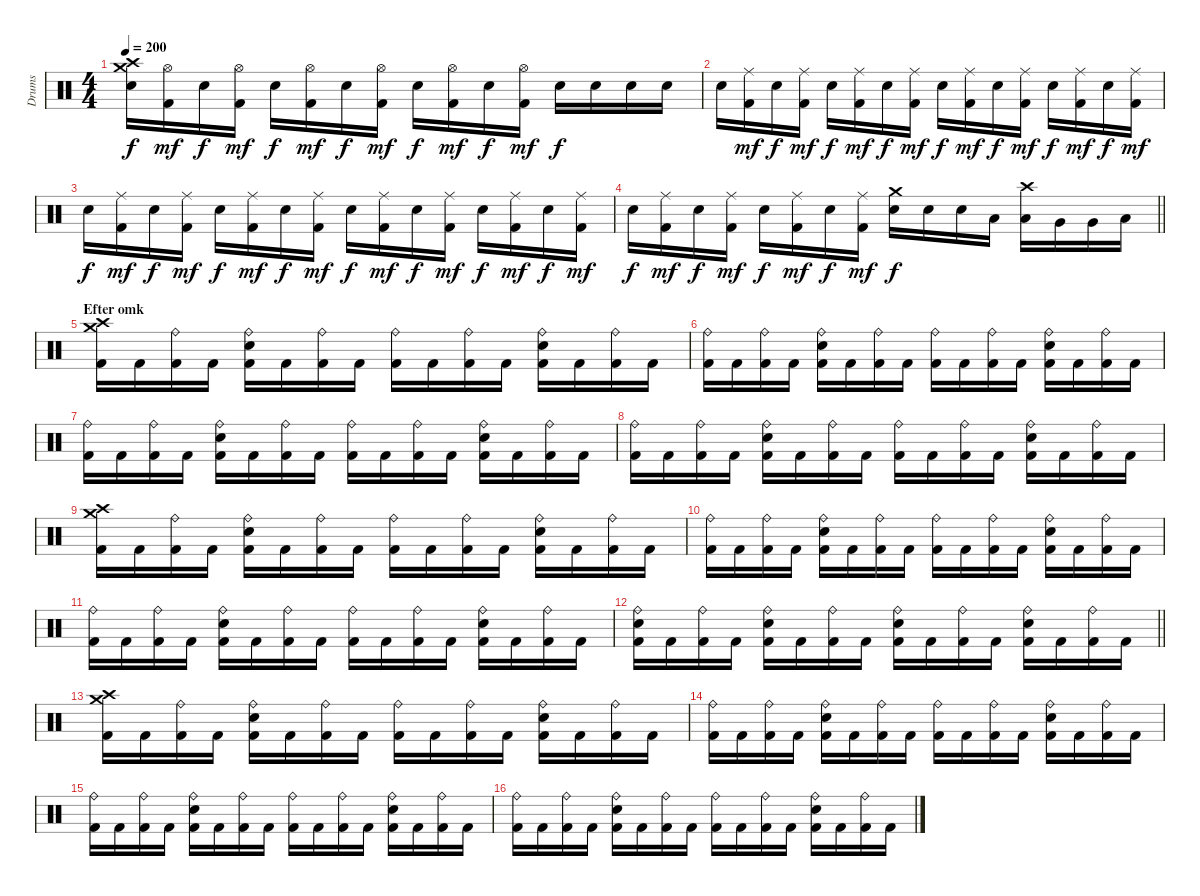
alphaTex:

\track ("Drums" "Drums") {instrument percussion}
\staff {score}
\articulation defaults
\ts (4 4)
\tempo 200
\clef neutral
\ks c
("Crash medium (hit)" "Crash high (hit)" "Snare (hit) 2").16{dy f} ("Hi-Hat (open)" "Kick (hit) 2").16{dy mf} "Snare (hit) 2".16{dy f} ("Hi-Hat (open)" "Kick (hit) 2").16{dy mf} "Snare (hit) 2".16{dy f} ("Hi-Hat (open)" "Kick (hit) 2").16{dy mf} "Snare (hit) 2".16{dy f} ("Hi-Hat (open)" "Kick (hit) 2").16{dy mf} "Snare (hit) 2".16{dy f} ("Hi-Hat (open)" "Kick (hit) 2").16{dy mf} "Snare (hit) 2".16{dy f} ("Hi-Hat (open)" "Kick (hit) 2").16{dy mf} "Snare (hit) 2".16{dy f} "Snare (hit) 2".16 "Snare (hit) 2".16 "Snare (hit) 2".16 |
"Snare (hit) 2".16 ("Ride (middle)" "Kick (hit) 2").16{dy mf} "Snare (hit) 2".16{dy f} ("Ride (middle)" "Kick (hit) 2").16{dy mf} "Snare (hit) 2".16{dy f} ("Ride (middle)" "Kick (hit) 2").16{dy mf} "Snare (hit) 2".16{dy f} ("Ride (middle)" "Kick (hit) 2").16{dy mf} "Snare (hit) 2".16{dy f} ("Ride (middle)" "Kick (hit) 2").16{dy mf} "Snare (hit) 2".16{dy f} ("Ride (middle)" "Kick (hit) 2").16{dy mf} "Snare (hit) 2".16{dy f} ("Ride (middle)" "Kick (hit) 2").16{dy mf} "Snare (hit) 2".16{dy f} ("Ride (middle)" "Kick (hit) 2").16{dy mf} |
"Snare (hit) 2".16{dy f} ("Ride (middle)" "Kick (hit) 2").16{dy mf} "Snare (hit) 2".16{dy f} ("Ride (middle)" "Kick (hit) 2").16{dy mf} "Snare (hit) 2".16{dy f} ("Ride (middle)" "Kick (hit) 2").16{dy mf} "Snare (hit) 2".16{dy f} ("Ride (middle)" "Kick (hit) 2").16{dy mf} "Snare (hit) 2".16{dy f} ("Ride (middle)" "Kick (hit) 2").16{dy mf} "Snare (hit) 2".16{dy f} ("Ride (middle)" "Kick (hit) 2").16{dy mf} "Snare (hit) 2".16{dy f} ("Ride (middle)" "Kick (hit) 2").16{dy mf} "Snare (hit) 2".16{dy f} ("Ride (middle)" "Kick (hit) 2").16{dy mf} |
\barLineRight lightlight "Snare (hit) 2".16{dy f}
("Ride (middle)" "Kick (hit) 2").16{dy mf} "Snare (hit) 2".16{dy f} ("Ride (middle)" "Kick (hit) 2").16{dy mf} "Snare (hit) 2".16{dy f} ("Ride (middle)" "Kick (hit) 2").16{dy mf} "Snare (hit) 2".16{dy f} ("Ride (middle)" "Kick (hit) 2").16{dy mf} ("Crash medium (hit)" "Snare (hit) 2").16{dy f} "Snare (hit) 2".16 "Snare (hit) 2".16 "Low Tom (hit)".16 ("Crash high (hit)" "Low Tom (hit)").16 "Very Low Tom (hit)".16 "Very Low Tom (hit)".16 "Low Floor Tom (hit)".16 |
\section ("" "Efter omk")
("Crash high (hit)" "Crash medium (hit)" "Kick (hit) 2").16 "Kick (hit) 2".16 ("Ride (bell)" "Kick (hit) 2").16 "Kick (hit) 2".16 ("Ride (bell)" "Snare (hit) 2" "Kick (hit) 2").16 "Kick (hit) 2".16 ("Ride (bell)" "Kick (hit) 2").16 "Kick (hit) 2".16 ("Ride (bell)" "Kick (hit) 2").16 "Kick (hit) 2".16 ("Ride (bell)" "Kick (hit) 2").16 "Kick (hit) 2".16 ("Ride (bell)" "Snare (hit) 2" "Kick (hit) 2").16 "Kick (hit) 2".16 ("Ride (bell)" "Kick (hit) 2").16 "Kick (hit) 2".16 |
("Ride (bell)" "Kick (hit) 2").16 "Kick (hit) 2".16 ("Ride (bell)" "Kick (hit) 2").16 "Kick (hit) 2".16 ("Ride (bell)" "Snare (hit) 2" "Kick (hit) 2").16 "Kick (hit) 2".16 ("Ride (bell)" "Kick (hit) 2").16 "Kick (hit) 2".16 ("Ride (bell)" "Kick (hit) 2").16 "Kick (hit) 2".16 ("Ride (bell)" "Kick (hit) 2").16 "Kick (hit) 2".16 ("Ride (bell)" "Snare (hit) 2" "Kick (hit) 2").16 "Kick (hit) 2".16 ("Ride (bell)" "Kick (hit) 2").16 "Kick (hit) 2".16 |
("Ride (bell)" "Kick (hit) 2").16 "Kick (hit) 2".16 ("Ride (bell)" "Kick (hit) 2").16 "Kick (hit) 2".16 ("Ride (bell)" "Snare (hit) 2" "Kick (hit) 2").16 "Kick (hit) 2".16 ("Ride (bell)" "Kick (hit) 2").16 "Kick (hit) 2".16 ("Ride (bell)" "Kick (hit) 2").16 "Kick (hit) 2".16 ("Ride (bell)" "Kick (hit) 2").16 "Kick (hit) 2".16 ("Ride (bell)" "Snare (hit) 2" "Kick (hit) 2").16 "Kick (hit) 2".16 ("Ride (bell)" "Kick (hit) 2").16 "Kick (hit) 2".16 |
("Ride (bell)" "Kick (hit) 2").16 "Kick (hit) 2".16 ("Ride (bell)" "Kick (hit) 2").16 "Kick (hit) 2".16 ("Ride (bell)" "Snare (hit) 2" "Kick (hit) 2").16 "Kick (hit) 2".16 ("Ride (bell)" "Kick (hit) 2").16 "Kick (hit) 2".16 ("Ride (bell)" "Kick (hit) 2").16 "Kick (hit) 2".16 ("Ride (bell)" "Kick (hit) 2").16 "Kick (hit) 2".16 ("Ride (bell)" "Snare (hit) 2" "Kick (hit) 2").16 "Kick (hit) 2".16 ("Ride (bell)" "Kick (hit) 2").16 "Kick (hit) 2".16 |
("Crash high (hit)" "Crash medium (hit)" "Kick (hit) 2").16 "Kick (hit) 2".16 ("Ride (bell)" "Kick (hit) 2").16 "Kick (hit) 2".16 ("Ride (bell)" "Snare (hit) 2" "Kick (hit) 2").16 "Kick (hit) 2".16 ("Ride (bell)" "Kick (hit) 2").16 "Kick (hit) 2".16 ("Ride (bell)" "Kick (hit) 2").16 "Kick (hit) 2".16 ("Ride (bell)" "Kick (hit) 2").16 "Kick (hit) 2".16 ("Ride (bell)" "Snare (hit) 2" "Kick (hit) 2").16 "Kick (hit) 2".16 ("Ride (bell)" "Kick (hit) 2").16 "Kick (hit) 2".16 |
("Ride (bell)" "Kick (hit) 2").16 "Kick (hit) 2".16 ("Ride (bell)" "Kick (hit) 2").16 "Kick (hit) 2".16 ("Ride (bell)" "Snare (hit) 2" "Kick (hit) 2").16 "Kick (hit) 2".16 ("Ride (bell)" "Kick (hit) 2").16 "Kick (hit) 2".16 ("Ride (bell)" "Kick (hit) 2").16 "Kick (hit) 2".16 ("Ride (bell)" "Kick (hit) 2").16 "Kick (hit) 2".16 ("Ride (bell)" "Snare (hit) 2" "Kick (hit) 2").16 "Kick (hit) 2".16 ("Ride (bell)" "Kick (hit) 2").16 "Kick (hit) 2".16 |
("Ride (bell)" "Kick (hit) 2").16 "Kick (hit) 2".16 ("Ride (bell)" "Kick (hit) 2").16 "Kick (hit) 2".16 ("Ride (bell)" "Snare (hit) 2" "Kick (hit) 2").16 "Kick (hit) 2".16 ("Ride (bell)" "Kick (hit) 2").16 "Kick (hit) 2".16 ("Ride (bell)" "Kick (hit) 2").16 "Kick (hit) 2".16 ("Ride (bell)" "Kick (hit) 2").16 "Kick (hit) 2".16 ("Ride (bell)" "Snare (hit) 2" "Kick (hit) 2").16 "Kick (hit) 2".16 ("Ride (bell)" "Kick (hit) 2").16 "Kick (hit) 2".16 |
\barLineRight lightlight
("Ride (bell)" "Snare (hit) 2" "Kick (hit) 2").16 "Kick (hit) 2".16 ("Ride (bell)" "Kick (hit) 2").16 "Kick (hit) 2".16 ("Ride (bell)" "Snare (hit) 2" "Kick (hit) 2").16 "Kick (hit) 2".16 ("Ride (bell)" "Kick (hit) 2").16 "Kick (hit) 2".16 ("Ride (bell)" "Snare (hit) 2" "Kick (hit) 2").16 "Kick (hit) 2".16 ("Ride (bell)" "Kick (hit) 2").16 "Kick (hit) 2".16 ("Ride (bell)" "Snare (hit) 2" "Kick (hit) 2").16 "Kick (hit) 2".16 ("Ride (bell)" "Kick (hit) 2").16 "Kick (hit) 2".16 |
("Crash high (hit)" "Crash medium (hit)" "Kick (hit) 2").16 "Kick (hit) 2".16 ("Ride (bell)" "Kick (hit) 2").16 "Kick (hit) 2".16 ("Ride (bell)" "Snare (hit) 2" "Kick (hit) 2").16 "Kick (hit) 2".16 ("Ride (bell)" "Kick (hit) 2").16 "Kick (hit) 2".16 ("Ride (bell)" "Kick (hit) 2").16 "Kick (hit) 2".16 ("Ride (bell)" "Kick (hit) 2").16 "Kick (hit) 2".16 ("Ride (bell)" "Snare (hit) 2" "Kick (hit) 2").16 "Kick (hit) 2".16 ("Ride (bell)" "Kick (hit) 2").16 "Kick (hit) 2".16 |
("Ride (bell)" "Kick (hit) 2").16 "Kick (hit) 2".16 ("Ride (bell)" "Kick (hit) 2").16 "Kick (hit) 2".16 ("Ride (bell)" "Snare (hit) 2" "Kick (hit) 2").16 "Kick (hit) 2".16 ("Ride (bell)" "Kick (hit) 2").16 "Kick (hit) 2".16 ("Ride (bell)" "Kick (hit) 2").16 "Kick (hit) 2".16 ("Ride (bell)" "Kick (hit) 2").16 "Kick (hit) 2".16 ("Ride (bell)" "Snare (hit) 2" "Kick (hit) 2").16 "Kick (hit) 2".16 ("Ride (bell)" "Kick (hit) 2").16 "Kick (hit) 2".16 |
("Ride (bell)" "Kick (hit) 2").16 "Kick (hit) 2".16 ("Ride (bell)" "Kick (hit) 2").16 "Kick (hit) 2".16 ("Ride (bell)" "Snare (hit) 2" "Kick (hit) 2").16 "Kick (hit) 2".16 ("Ride (bell)" "Kick (hit) 2").16 "Kick (hit) 2".16 ("Ride (bell)" "Kick (hit) 2").16 "Kick (hit) 2".16 ("Ride (bell)" "Kick (hit) 2").16 "Kick (hit) 2".16 ("Ride (bell)" "Snare (hit) 2" "Kick (hit) 2").16 "Kick (hit) 2".16 ("Ride (bell)" "Kick (hit) 2").16 "Kick (hit) 2".16 |
("Ride (bell)" "Kick (hit) 2").16 "Kick (hit) 2".16 ("Ride (bell)" "Kick (hit) 2").16 "Kick (hit) 2".16 ("Ride (bell)" "Snare (hit) 2" "Kick (hit) 2").16 "Kick (hit) 2".16 ("Ride (bell)" "Kick (hit) 2").16 "Kick (hit) 2".16 ("Ride (bell)" "Kick (hit) 2").16 "Kick (hit) 2".16 ("Ride (bell)" "Kick (hit) 2").16 "Kick (hit) 2".16 ("Ride (bell)" "Snare (hit) 2" "Kick (hit) 2").16 "Kick (hit) 2".16 ("Ride (bell)" "Kick (hit) 2").16 "Kick (hit) 2".16
